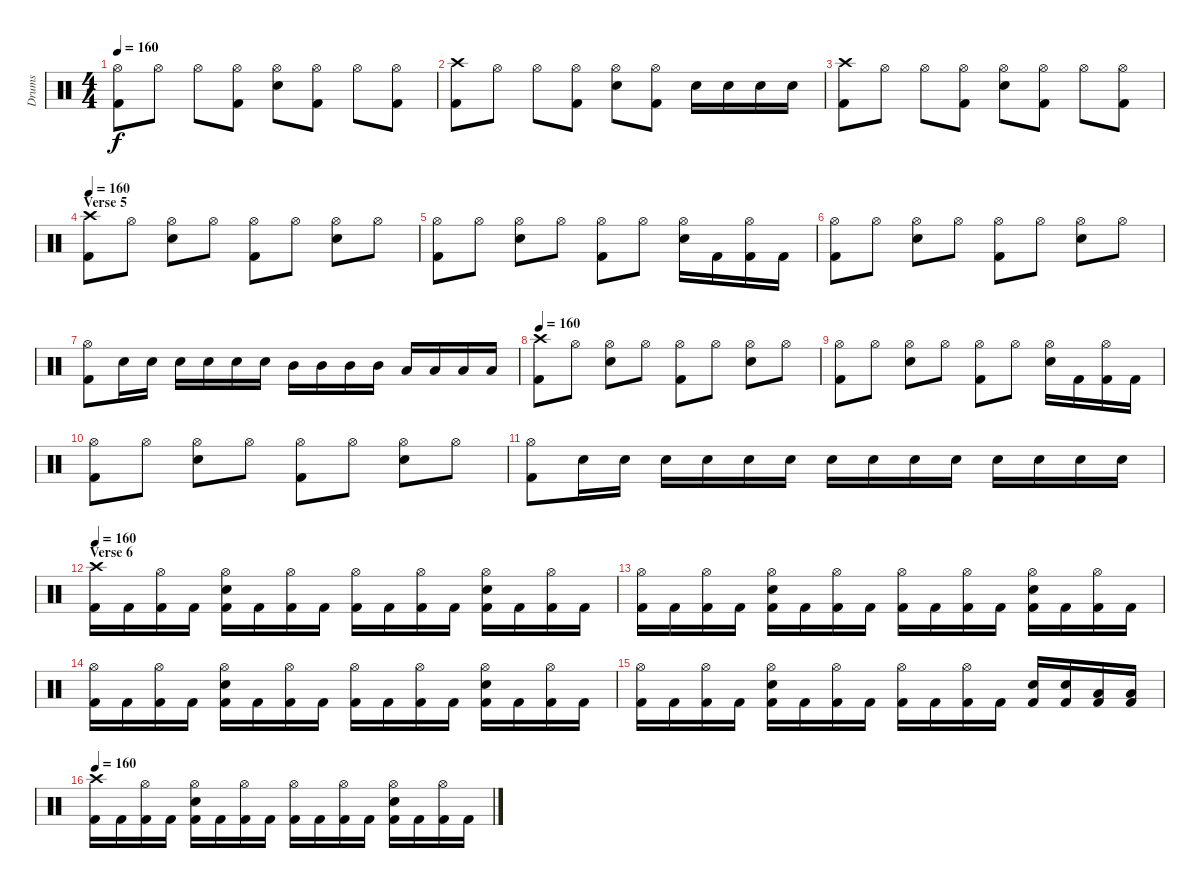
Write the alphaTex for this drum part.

\track ("Drums" "Drums") {instrument percussion}
\staff {score}
\articulation defaults
\ts (4 4)
\tempo 160
\clef neutral
\ks c
("Hi-Hat (open)" "Kick (hit) 2").8{dy f} "Hi-Hat (open)".8 "Hi-Hat (open)".8 ("Hi-Hat (open)" "Kick (hit) 2").8 ("Hi-Hat (open)" "Electric Snare (hit)").8 ("Hi-Hat (open)" "Kick (hit) 2").8 "Hi-Hat (open)".8 ("Hi-Hat (open)" "Kick (hit) 2").8 |
("Crash high (hit)" "Kick (hit) 2").8 "Hi-Hat (open)".8 "Hi-Hat (open)".8 ("Hi-Hat (open)" "Kick (hit) 2").8 ("Hi-Hat (open)" "Electric Snare (hit)").8 ("Hi-Hat (open)" "Kick (hit) 2").8 "Electric Snare (hit)".16 "Electric Snare (hit)".16 "Electric Snare (hit)".16 "Electric Snare (hit)".16 |
("Crash high (hit)" "Kick (hit) 2").8 "Hi-Hat (open)".8 "Hi-Hat (open)".8 ("Hi-Hat (open)" "Kick (hit) 2").8 ("Hi-Hat (open)" "Electric Snare (hit)").8 ("Hi-Hat (open)" "Kick (hit) 2").8 "Hi-Hat (open)".8 ("Hi-Hat (open)" "Kick (hit) 2").8 |
\section ("" "Verse 5")
\tempo 160
("Crash high (hit)" "Kick (hit) 2").8 "Hi-Hat (open)".8 ("Hi-Hat (open)" "Electric Snare (hit)").8 "Hi-Hat (open)".8 ("Hi-Hat (open)" "Kick (hit) 2").8 "Hi-Hat (open)".8 ("Hi-Hat (open)" "Electric Snare (hit)").8 "Hi-Hat (open)".8 |
("Hi-Hat (open)" "Kick (hit) 2").8 "Hi-Hat (open)".8 ("Hi-Hat (open)" "Electric Snare (hit)").8 "Hi-Hat (open)".8 ("Hi-Hat (open)" "Kick (hit) 2").8 "Hi-Hat (open)".8 ("Hi-Hat (open)" "Electric Snare (hit)").16 "Kick (hit) 2".16 ("Hi-Hat (open)" "Kick (hit) 2").16 "Kick (hit) 2".16 |
("Hi-Hat (open)" "Kick (hit) 2").8 "Hi-Hat (open)".8 ("Hi-Hat (open)" "Electric Snare (hit)").8 "Hi-Hat (open)".8 ("Hi-Hat (open)" "Kick (hit) 2").8 "Hi-Hat (open)".8 ("Hi-Hat (open)" "Electric Snare (hit)").8 "Hi-Hat (open)".8 |
("Hi-Hat (open)" "Kick (hit) 2").8 "Electric Snare (hit)".16 "Electric Snare (hit)".16 "Electric Snare (hit)".16 "Electric Snare (hit)".16 "Electric Snare (hit)".16 "Electric Snare (hit)".16 "Mid Tom (hit)".16 "Mid Tom (hit)".16 "Mid Tom (hit)".16 "Mid Tom (hit)".16 "Low Tom (hit)".16 "Low Tom (hit)".16 "Low Tom (hit)".16 "Low Floor Tom (hit)".16 |
\tempo 160
("Crash high (hit)" "Kick (hit) 2").8 "Hi-Hat (open)".8 ("Hi-Hat (open)" "Electric Snare (hit)").8 "Hi-Hat (open)".8 ("Hi-Hat (open)" "Kick (hit) 2").8 "Hi-Hat (open)".8 ("Hi-Hat (open)" "Electric Snare (hit)").8 "Hi-Hat (open)".8 |
("Hi-Hat (open)" "Kick (hit) 2").8 "Hi-Hat (open)".8 ("Hi-Hat (open)" "Electric Snare (hit)").8 "Hi-Hat (open)".8 ("Hi-Hat (open)" "Kick (hit) 2").8 "Hi-Hat (open)".8 ("Hi-Hat (open)" "Electric Snare (hit)").16 "Kick (hit) 2".16 ("Hi-Hat (open)" "Kick (hit) 2").16 "Kick (hit) 2".16 |
("Hi-Hat (open)" "Kick (hit) 2").8 "Hi-Hat (open)".8 ("Hi-Hat (open)" "Electric Snare (hit)").8 "Hi-Hat (open)".8 ("Hi-Hat (open)" "Kick (hit) 2").8 "Hi-Hat (open)".8 ("Hi-Hat (open)" "Electric Snare (hit)").8 "Hi-Hat (open)".8 |
("Hi-Hat (open)" "Kick (hit) 2").8 "Electric Snare (hit)".16 "Electric Snare (hit)".16 "Electric Snare (hit)".16 "Electric Snare (hit)".16 "Electric Snare (hit)".16 "Electric Snare (hit)".16 "Electric Snare (hit)".16 "Electric Snare (hit)".16 "Electric Snare (hit)".16 "Electric Snare (hit)".16 "Electric Snare (hit)".16 "Electric Snare (hit)".16 "Electric Snare (hit)".16 "Electric Snare (hit)".16 |
\section ("" "Verse 6")
\tempo 160
("Crash high (hit)" "Kick (hit) 2").16 "Kick (hit) 2".16 ("Hi-Hat (open)" "Kick (hit) 2").16 "Kick (hit) 2".16 ("Hi-Hat (open)" "Electric Snare (hit)" "Kick (hit) 2").16 "Kick (hit) 2".16 ("Hi-Hat (open)" "Kick (hit) 2").16 "Kick (hit) 2".16 ("Hi-Hat (open)" "Kick (hit) 2").16 "Kick (hit) 2".16 ("Hi-Hat (open)" "Kick (hit) 2").16 "Kick (hit) 2".16 ("Hi-Hat (open)" "Electric Snare (hit)" "Kick (hit) 2").16 "Kick (hit) 2".16 ("Hi-Hat (open)" "Kick (hit) 2").16 "Kick (hit) 2".16 |
("Hi-Hat (open)" "Kick (hit) 2").16 "Kick (hit) 2".16 ("Hi-Hat (open)" "Kick (hit) 2").16 "Kick (hit) 2".16 ("Hi-Hat (open)" "Electric Snare (hit)" "Kick (hit) 2").16 "Kick (hit) 2".16 ("Hi-Hat (open)" "Kick (hit) 2").16 "Kick (hit) 2".16 ("Hi-Hat (open)" "Kick (hit) 2").16 "Kick (hit) 2".16 ("Hi-Hat (open)" "Kick (hit) 2").16 "Kick (hit) 2".16 ("Hi-Hat (open)" "Electric Snare (hit)" "Kick (hit) 2").16 "Kick (hit) 2".16 ("Hi-Hat (open)" "Kick (hit) 2").16 "Kick (hit) 2".16 |
("Hi-Hat (open)" "Kick (hit) 2").16 "Kick (hit) 2".16 ("Hi-Hat (open)" "Kick (hit) 2").16 "Kick (hit) 2".16 ("Hi-Hat (open)" "Electric Snare (hit)" "Kick (hit) 2").16 "Kick (hit) 2".16 ("Hi-Hat (open)" "Kick (hit) 2").16 "Kick (hit) 2".16 ("Hi-Hat (open)" "Kick (hit) 2").16 "Kick (hit) 2".16 ("Hi-Hat (open)" "Kick (hit) 2").16 "Kick (hit) 2".16 ("Hi-Hat (open)" "Electric Snare (hit)" "Kick (hit) 2").16 "Kick (hit) 2".16 ("Hi-Hat (open)" "Kick (hit) 2").16 "Kick (hit) 2".16 |
("Hi-Hat (open)" "Kick (hit) 2").16 "Kick (hit) 2".16 ("Hi-Hat (open)" "Kick (hit) 2").16 "Kick (hit) 2".16 ("Hi-Hat (open)" "Electric Snare (hit)" "Kick (hit) 2").16 "Kick (hit) 2".16 ("Hi-Hat (open)" "Kick (hit) 2").16 "Kick (hit) 2".16 ("Hi-Hat (open)" "Kick (hit) 2").16 "Kick (hit) 2".16 ("Hi-Hat (open)" "Kick (hit) 2").16 "Kick (hit) 2".16 ("Electric Snare (hit)" "Kick (hit) 2").16 ("Electric Snare (hit)" "Kick (hit) 2").16 ("Low Tom (hit)" "Kick (hit) 2").16 ("Low Floor Tom (hit)" "Kick (hit) 2").16 |
\tempo 160
("Crash high (hit)" "Kick (hit) 2").16 "Kick (hit) 2".16 ("Hi-Hat (open)" "Kick (hit) 2").16 "Kick (hit) 2".16 ("Hi-Hat (open)" "Electric Snare (hit)" "Kick (hit) 2").16 "Kick (hit) 2".16 ("Hi-Hat (open)" "Kick (hit) 2").16 "Kick (hit) 2".16 ("Hi-Hat (open)" "Kick (hit) 2").16 "Kick (hit) 2".16 ("Hi-Hat (open)" "Kick (hit) 2").16 "Kick (hit) 2".16 ("Hi-Hat (open)" "Electric Snare (hit)" "Kick (hit) 2").16 "Kick (hit) 2".16 ("Hi-Hat (open)" "Kick (hit) 2").16 "Kick (hit) 2".16
